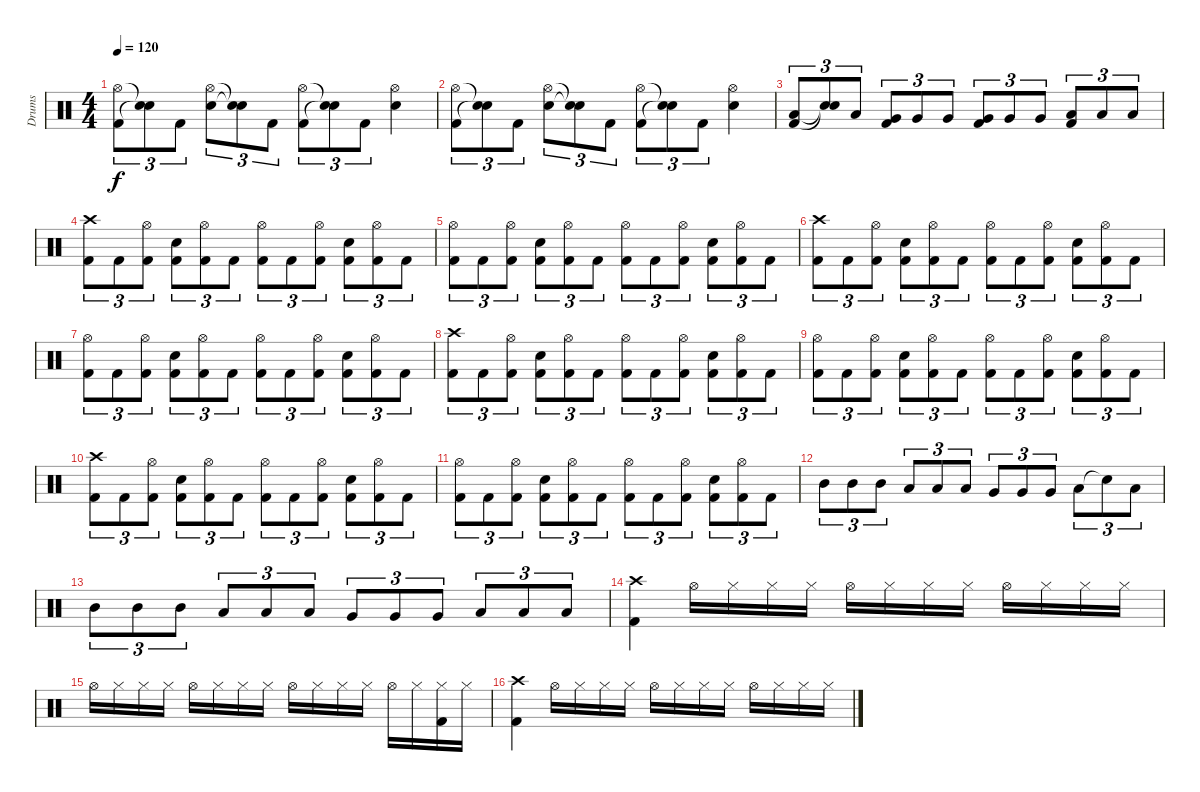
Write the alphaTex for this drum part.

\track ("Drums" "Drums") {instrument percussion}
\staff {score}
\articulation defaults
\ts (4 4)
\tempo 120
\clef neutral
\ks c
("Hi-Hat (open)" "Kick (hit) 2").8{tu (3 2) dy f} ("Snare (hit)"{t} "Snare (hit)"{t}).8{tu (3 2)} "Kick (hit) 2".8{tu (3 2)} ("Hi-Hat (open)" "Electric Snare (hit)").8{tu (3 2)} ("Snare (hit)"{t} "Snare (hit)"{t}).8{tu (3 2)} "Kick (hit) 2".8{tu (3 2)} ("Hi-Hat (open)" "Kick (hit) 2").8{tu (3 2)} ("Snare (hit)"{t} "Snare (hit)"{t}).8{tu (3 2)} "Kick (hit) 2".8{tu (3 2)} ("Hi-Hat (open)" "Electric Snare (hit)").4 |
("Hi-Hat (open)" "Kick (hit) 2").8{tu (3 2)} ("Snare (hit)"{t} "Snare (hit)"{t}).8{tu (3 2)} "Kick (hit) 2".8{tu (3 2)} ("Hi-Hat (open)" "Electric Snare (hit)").8{tu (3 2)} ("Snare (hit)"{t} "Snare (hit)"{t}).8{tu (3 2)} "Kick (hit) 2".8{tu (3 2)} ("Hi-Hat (open)" "Kick (hit) 2").8{tu (3 2)} ("Snare (hit)"{t} "Snare (hit)"{t}).8{tu (3 2)} "Kick (hit) 2".8{tu (3 2)} ("Hi-Hat (open)" "Electric Snare (hit)").4 |
("Kick (hit) 2" "Low Tom (hit)").8{tu (3 2)} ("Snare (hit)"{t} "Snare (hit)"{t}).8{tu (3 2)} "Low Tom (hit)".8{tu (3 2)} ("Kick (hit) 2" "Very Low Tom (hit)").8{tu (3 2)} "Very Low Tom (hit)".8{tu (3 2)} "Very Low Tom (hit)".8{tu (3 2)} ("Kick (hit) 2" "Very Low Tom (hit)").8{tu (3 2)} "Very Low Tom (hit)".8{tu (3 2)} "Very Low Tom (hit)".8{tu (3 2)} ("Kick (hit) 2" "Low Floor Tom (hit)").8{tu (3 2)} "Low Floor Tom (hit)".8{tu (3 2)} "Low Floor Tom (hit)".8{tu (3 2)} |
("Crash high (hit)" "Kick (hit) 2").8{tu (3 2)} "Kick (hit) 2".8{tu (3 2)} ("Hi-Hat (open)" "Kick (hit) 2").8{tu (3 2)} ("Electric Snare (hit)" "Kick (hit) 2").8{tu (3 2)} ("Hi-Hat (open)" "Kick (hit) 2").8{tu (3 2)} "Kick (hit) 2".8{tu (3 2)} ("Hi-Hat (open)" "Kick (hit) 2").8{tu (3 2)} "Kick (hit) 2".8{tu (3 2)} ("Hi-Hat (open)" "Kick (hit) 2").8{tu (3 2)} ("Electric Snare (hit)" "Kick (hit) 2").8{tu (3 2)} ("Hi-Hat (open)" "Kick (hit) 2").8{tu (3 2)} "Kick (hit) 2".8{tu (3 2)} |
("Hi-Hat (open)" "Kick (hit) 2").8{tu (3 2)} "Kick (hit) 2".8{tu (3 2)} ("Hi-Hat (open)" "Kick (hit) 2").8{tu (3 2)} ("Electric Snare (hit)" "Kick (hit) 2").8{tu (3 2)} ("Hi-Hat (open)" "Kick (hit) 2").8{tu (3 2)} "Kick (hit) 2".8{tu (3 2)} ("Hi-Hat (open)" "Kick (hit) 2").8{tu (3 2)} "Kick (hit) 2".8{tu (3 2)} ("Hi-Hat (open)" "Kick (hit) 2").8{tu (3 2)} ("Electric Snare (hit)" "Kick (hit) 2").8{tu (3 2)} ("Hi-Hat (open)" "Kick (hit) 2").8{tu (3 2)} "Kick (hit) 2".8{tu (3 2)} |
("Crash high (hit)" "Kick (hit) 2").8{tu (3 2)} "Kick (hit) 2".8{tu (3 2)} ("Hi-Hat (open)" "Kick (hit) 2").8{tu (3 2)} ("Electric Snare (hit)" "Kick (hit) 2").8{tu (3 2)} ("Hi-Hat (open)" "Kick (hit) 2").8{tu (3 2)} "Kick (hit) 2".8{tu (3 2)} ("Hi-Hat (open)" "Kick (hit) 2").8{tu (3 2)} "Kick (hit) 2".8{tu (3 2)} ("Hi-Hat (open)" "Kick (hit) 2").8{tu (3 2)} ("Electric Snare (hit)" "Kick (hit) 2").8{tu (3 2)} ("Hi-Hat (open)" "Kick (hit) 2").8{tu (3 2)} "Kick (hit) 2".8{tu (3 2)} |
("Hi-Hat (open)" "Kick (hit) 2").8{tu (3 2)} "Kick (hit) 2".8{tu (3 2)} ("Hi-Hat (open)" "Kick (hit) 2").8{tu (3 2)} ("Electric Snare (hit)" "Kick (hit) 2").8{tu (3 2)} ("Hi-Hat (open)" "Kick (hit) 2").8{tu (3 2)} "Kick (hit) 2".8{tu (3 2)} ("Hi-Hat (open)" "Kick (hit) 2").8{tu (3 2)} "Kick (hit) 2".8{tu (3 2)} ("Hi-Hat (open)" "Kick (hit) 2").8{tu (3 2)} ("Electric Snare (hit)" "Kick (hit) 2").8{tu (3 2)} ("Hi-Hat (open)" "Kick (hit) 2").8{tu (3 2)} "Kick (hit) 2".8{tu (3 2)} |
("Crash high (hit)" "Kick (hit) 2").8{tu (3 2)} "Kick (hit) 2".8{tu (3 2)} ("Hi-Hat (open)" "Kick (hit) 2").8{tu (3 2)} ("Electric Snare (hit)" "Kick (hit) 2").8{tu (3 2)} ("Hi-Hat (open)" "Kick (hit) 2").8{tu (3 2)} "Kick (hit) 2".8{tu (3 2)} ("Hi-Hat (open)" "Kick (hit) 2").8{tu (3 2)} "Kick (hit) 2".8{tu (3 2)} ("Hi-Hat (open)" "Kick (hit) 2").8{tu (3 2)} ("Electric Snare (hit)" "Kick (hit) 2").8{tu (3 2)} ("Hi-Hat (open)" "Kick (hit) 2").8{tu (3 2)} "Kick (hit) 2".8{tu (3 2)} |
("Hi-Hat (open)" "Kick (hit) 2").8{tu (3 2)} "Kick (hit) 2".8{tu (3 2)} ("Hi-Hat (open)" "Kick (hit) 2").8{tu (3 2)} ("Electric Snare (hit)" "Kick (hit) 2").8{tu (3 2)} ("Hi-Hat (open)" "Kick (hit) 2").8{tu (3 2)} "Kick (hit) 2".8{tu (3 2)} ("Hi-Hat (open)" "Kick (hit) 2").8{tu (3 2)} "Kick (hit) 2".8{tu (3 2)} ("Hi-Hat (open)" "Kick (hit) 2").8{tu (3 2)} ("Electric Snare (hit)" "Kick (hit) 2").8{tu (3 2)} ("Hi-Hat (open)" "Kick (hit) 2").8{tu (3 2)} "Kick (hit) 2".8{tu (3 2)} |
("Crash high (hit)" "Kick (hit) 2").8{tu (3 2)} "Kick (hit) 2".8{tu (3 2)} ("Hi-Hat (open)" "Kick (hit) 2").8{tu (3 2)} ("Electric Snare (hit)" "Kick (hit) 2").8{tu (3 2)} ("Hi-Hat (open)" "Kick (hit) 2").8{tu (3 2)} "Kick (hit) 2".8{tu (3 2)} ("Hi-Hat (open)" "Kick (hit) 2").8{tu (3 2)} "Kick (hit) 2".8{tu (3 2)} ("Hi-Hat (open)" "Kick (hit) 2").8{tu (3 2)} ("Electric Snare (hit)" "Kick (hit) 2").8{tu (3 2)} ("Hi-Hat (open)" "Kick (hit) 2").8{tu (3 2)} "Kick (hit) 2".8{tu (3 2)} |
("Hi-Hat (open)" "Kick (hit) 2").8{tu (3 2)} "Kick (hit) 2".8{tu (3 2)} ("Hi-Hat (open)" "Kick (hit) 2").8{tu (3 2)} ("Electric Snare (hit)" "Kick (hit) 2").8{tu (3 2)} ("Hi-Hat (open)" "Kick (hit) 2").8{tu (3 2)} "Kick (hit) 2".8{tu (3 2)} ("Hi-Hat (open)" "Kick (hit) 2").8{tu (3 2)} "Kick (hit) 2".8{tu (3 2)} ("Hi-Hat (open)" "Kick (hit) 2").8{tu (3 2)} ("Electric Snare (hit)" "Kick (hit) 2").8{tu (3 2)} ("Hi-Hat (open)" "Kick (hit) 2").8{tu (3 2)} "Kick (hit) 2".8{tu (3 2)} |
"Mid Tom (hit)".8{tu (3 2)} "Mid Tom (hit)".8{tu (3 2)} "Mid Tom (hit)".8{tu (3 2)} "Low Tom (hit)".8{tu (3 2)} "Low Tom (hit)".8{tu (3 2)} "Low Tom (hit)".8{tu (3 2)} "Very Low Tom (hit)".8{tu (3 2)} "Very Low Tom (hit)".8{tu (3 2)} "Very Low Tom (hit)".8{tu (3 2)} "Low Floor Tom (hit)".8{tu (3 2)} "Snare (hit)"{t}.8{tu (3 2)} "Low Floor Tom (hit)".8{tu (3 2)} |
"Mid Tom (hit)".8{tu (3 2)} "Mid Tom (hit)".8{tu (3 2)} "Mid Tom (hit)".8{tu (3 2)} "Low Tom (hit)".8{tu (3 2)} "Low Tom (hit)".8{tu (3 2)} "Low Tom (hit)".8{tu (3 2)} "Very Low Tom (hit)".8{tu (3 2)} "Very Low Tom (hit)".8{tu (3 2)} "Very Low Tom (hit)".8{tu (3 2)} "Low Floor Tom (hit)".8{tu (3 2)} "Low Floor Tom (hit)".8{tu (3 2)} "Low Floor Tom (hit)".8{tu (3 2)} |
("Crash high (hit)" "Kick (hit) 2").4 "Hi-Hat (open)".16 "Hi-Hat (closed)".16 "Hi-Hat (closed)".16 "Hi-Hat (closed)".16 "Hi-Hat (open)".16 "Hi-Hat (closed)".16 "Hi-Hat (closed)".16 "Hi-Hat (closed)".16 "Hi-Hat (open)".16 "Hi-Hat (closed)".16 "Hi-Hat (closed)".16 "Hi-Hat (closed)".16 |
"Hi-Hat (open)".16 "Hi-Hat (closed)".16 "Hi-Hat (closed)".16 "Hi-Hat (closed)".16 "Hi-Hat (open)".16 "Hi-Hat (closed)".16 "Hi-Hat (closed)".16 "Hi-Hat (closed)".16 "Hi-Hat (open)".16 "Hi-Hat (closed)".16 "Hi-Hat (closed)".16 "Hi-Hat (closed)".16 "Hi-Hat (open)".16 "Hi-Hat (closed)".16 ("Hi-Hat (closed)" "Kick (hit) 2").16 "Hi-Hat (closed)".16 |
("Crash high (hit)" "Kick (hit) 2").4 "Hi-Hat (open)".16 "Hi-Hat (closed)".16 "Hi-Hat (closed)".16 "Hi-Hat (closed)".16 "Hi-Hat (open)".16 "Hi-Hat (closed)".16 "Hi-Hat (closed)".16 "Hi-Hat (closed)".16 "Hi-Hat (open)".16 "Hi-Hat (closed)".16 "Hi-Hat (closed)".16 "Hi-Hat (closed)".16
